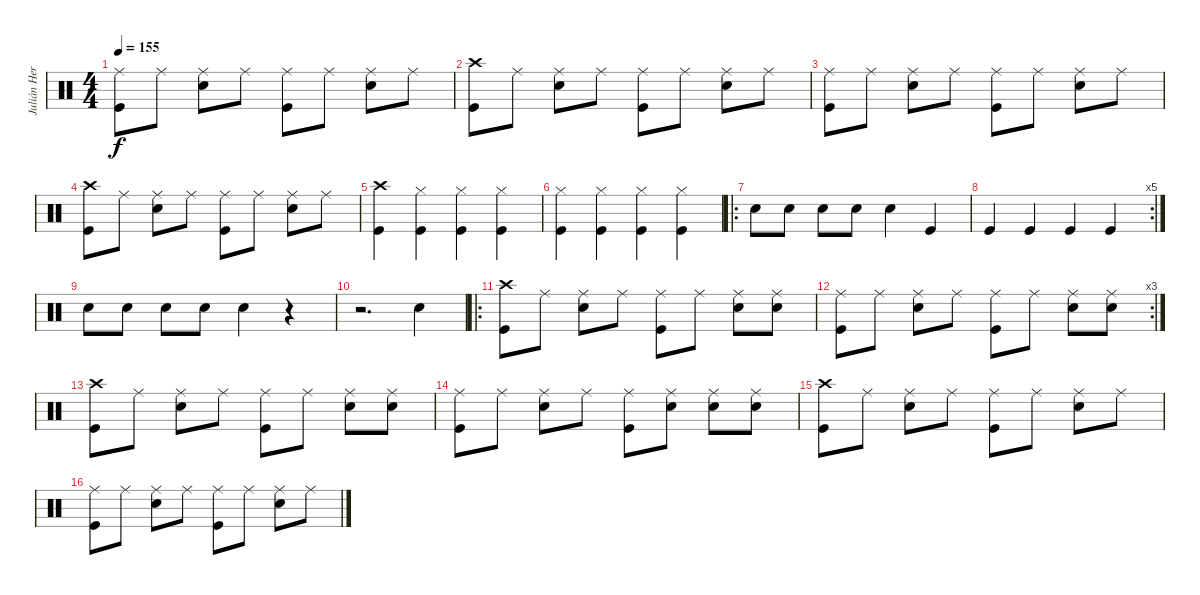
\track ("Julián Hernandez" "Julián Her") {instrument percussion}
\staff {score}
\articulation defaults
\ts (4 4)
\tempo 155
\clef neutral
\ks c
("Ride (middle)" "Kick (hit)").8{dy f} "Ride (middle)".8 ("Ride (middle)" "Snare (hit) 2").8 "Ride (middle)".8 ("Ride (middle)" "Kick (hit)").8 "Ride (middle)".8 ("Ride (middle)" "Snare (hit) 2").8 "Ride (middle)".8 |
("Crash high (hit)" "Kick (hit)").8 "Ride (middle)".8 ("Ride (middle)" "Snare (hit) 2").8 "Ride (middle)".8 ("Ride (middle)" "Kick (hit)").8 "Ride (middle)".8 ("Ride (middle)" "Snare (hit) 2").8 "Ride (middle)".8 |
("Ride (middle)" "Kick (hit)").8 "Ride (middle)".8 ("Ride (middle)" "Snare (hit) 2").8 "Ride (middle)".8 ("Ride (middle)" "Kick (hit)").8 "Ride (middle)".8 ("Ride (middle)" "Snare (hit) 2").8 "Ride (middle)".8 |
("Crash high (hit)" "Kick (hit)").8 "Ride (middle)".8 ("Ride (middle)" "Snare (hit) 2").8 "Ride (middle)".8 ("Ride (middle)" "Kick (hit)").8 "Ride (middle)".8 ("Ride (middle)" "Snare (hit) 2").8 "Ride (middle)".8 |
("Crash high (hit)" "Kick (hit)").4 ("Hi-Hat (closed)" "Kick (hit)").4 ("Hi-Hat (closed)" "Kick (hit)").4 ("Hi-Hat (closed)" "Kick (hit)").4 |
("Hi-Hat (closed)" "Kick (hit)").4 ("Hi-Hat (closed)" "Kick (hit)").4 ("Hi-Hat (closed)" "Kick (hit)").4 ("Hi-Hat (closed)" "Kick (hit)").4 |
\ro "Snare (hit) 2".8 "Snare (hit) 2".8 "Snare (hit) 2".8 "Snare (hit) 2".8 "Snare (hit) 2".4 "Kick (hit)".4
|
\rc 5 "Kick (hit)".4 "Kick (hit)".4 "Kick (hit)".4 "Kick (hit)".4
|
"Snare (hit) 2".8 "Snare (hit) 2".8 "Snare (hit) 2".8 "Snare (hit) 2".8 "Snare (hit) 2".4 r.4 |
r.2{d} "Snare (hit) 2".4 |
\ro
("Crash high (hit)" "Kick (hit)").8 "Ride (middle)".8 ("Ride (middle)" "Snare (hit) 2").8 "Ride (middle)".8 ("Ride (middle)" "Kick (hit)").8 "Ride (middle)".8 ("Ride (middle)" "Snare (hit) 2").8 ("Ride (middle)" "Snare (hit) 2").8 |
\rc 3
("Ride (middle)" "Kick (hit)").8 "Ride (middle)".8 ("Ride (middle)" "Snare (hit) 2").8 "Ride (middle)".8 ("Ride (middle)" "Kick (hit)").8 "Ride (middle)".8 ("Ride (middle)" "Snare (hit) 2").8 ("Ride (middle)" "Snare (hit) 2").8 |
("Crash high (hit)" "Kick (hit)").8 "Ride (middle)".8 ("Ride (middle)" "Snare (hit) 2").8 "Ride (middle)".8 ("Ride (middle)" "Kick (hit)").8 "Ride (middle)".8 ("Ride (middle)" "Snare (hit) 2").8 ("Ride (middle)" "Snare (hit) 2").8 |
("Ride (middle)" "Kick (hit)").8 "Ride (middle)".8 ("Ride (middle)" "Snare (hit) 2").8 "Ride (middle)".8 ("Ride (middle)" "Kick (hit)").8 ("Ride (middle)" "Snare (hit) 2").8 ("Ride (middle)" "Snare (hit) 2").8 ("Ride (middle)" "Snare (hit) 2").8 |
("Crash high (hit)" "Kick (hit)").8 "Ride (middle)".8 ("Ride (middle)" "Snare (hit) 2").8 "Ride (middle)".8 ("Ride (middle)" "Kick (hit)").8 "Ride (middle)".8 ("Ride (middle)" "Snare (hit) 2").8 "Ride (middle)".8 |
("Ride (middle)" "Kick (hit)").8 "Ride (middle)".8 ("Ride (middle)" "Snare (hit) 2").8 "Ride (middle)".8 ("Ride (middle)" "Kick (hit)").8 "Ride (middle)".8 ("Ride (middle)" "Snare (hit) 2").8 "Ride (middle)".8
